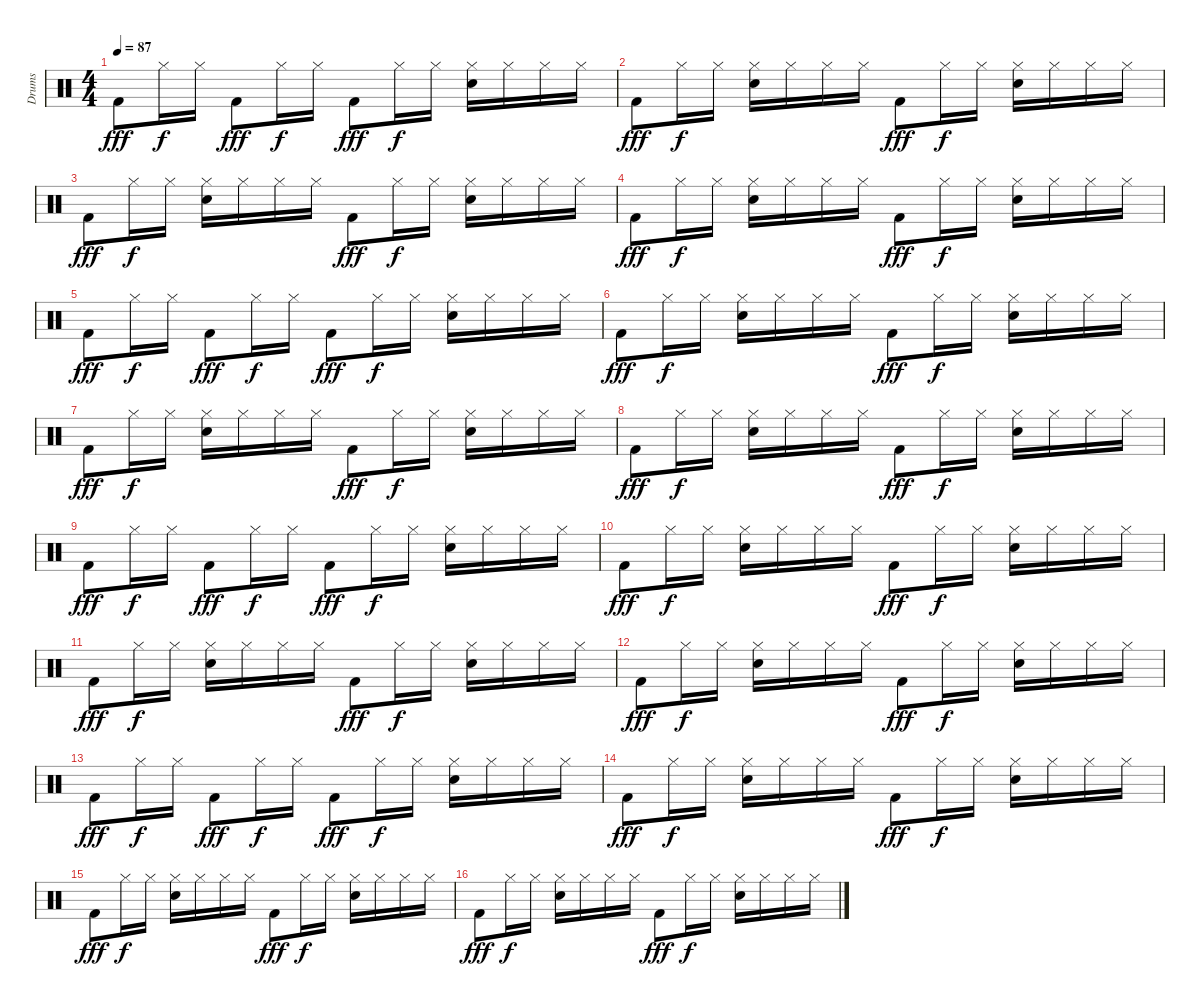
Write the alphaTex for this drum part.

\track ("Drums" "Drums") {instrument percussion}
\staff {score}
\articulation defaults
\ts (4 4)
\tempo 87
\clef neutral
\ks c "Kick (hit) 2".8{dy fff} "Hi-Hat (closed)".16{dy f} "Hi-Hat (closed)".16 "Kick (hit) 2".8{dy fff} "Hi-Hat (closed)".16{dy f} "Hi-Hat (closed)".16 "Kick (hit) 2".8{dy fff} "Hi-Hat (closed)".16{dy f} "Hi-Hat (closed)".16
("Hi-Hat (closed)" "Electric Snare (hit)").16 "Hi-Hat (closed)".16 "Hi-Hat (closed)".16 "Hi-Hat (closed)".16 |
"Kick (hit) 2".8{dy fff} "Hi-Hat (closed)".16{dy f} "Hi-Hat (closed)".16 ("Hi-Hat (closed)" "Electric Snare (hit)").16 "Hi-Hat (closed)".16 "Hi-Hat (closed)".16 "Hi-Hat (closed)".16 "Kick (hit) 2".8{dy fff} "Hi-Hat (closed)".16{dy f} "Hi-Hat (closed)".16 ("Hi-Hat (closed)" "Electric Snare (hit)").16 "Hi-Hat (closed)".16 "Hi-Hat (closed)".16 "Hi-Hat (closed)".16 |
"Kick (hit) 2".8{dy fff} "Hi-Hat (closed)".16{dy f} "Hi-Hat (closed)".16 ("Hi-Hat (closed)" "Electric Snare (hit)").16 "Hi-Hat (closed)".16 "Hi-Hat (closed)".16 "Hi-Hat (closed)".16 "Kick (hit) 2".8{dy fff} "Hi-Hat (closed)".16{dy f} "Hi-Hat (closed)".16 ("Hi-Hat (closed)" "Electric Snare (hit)").16 "Hi-Hat (closed)".16 "Hi-Hat (closed)".16 "Hi-Hat (closed)".16 |
"Kick (hit) 2".8{dy fff} "Hi-Hat (closed)".16{dy f} "Hi-Hat (closed)".16 ("Hi-Hat (closed)" "Electric Snare (hit)").16 "Hi-Hat (closed)".16 "Hi-Hat (closed)".16 "Hi-Hat (closed)".16 "Kick (hit) 2".8{dy fff} "Hi-Hat (closed)".16{dy f} "Hi-Hat (closed)".16 ("Hi-Hat (closed)" "Electric Snare (hit)").16 "Hi-Hat (closed)".16 "Hi-Hat (closed)".16 "Hi-Hat (closed)".16 |
"Kick (hit) 2".8{dy fff} "Hi-Hat (closed)".16{dy f} "Hi-Hat (closed)".16 "Kick (hit) 2".8{dy fff} "Hi-Hat (closed)".16{dy f} "Hi-Hat (closed)".16 "Kick (hit) 2".8{dy fff} "Hi-Hat (closed)".16{dy f} "Hi-Hat (closed)".16 ("Hi-Hat (closed)" "Electric Snare (hit)").16 "Hi-Hat (closed)".16 "Hi-Hat (closed)".16 "Hi-Hat (closed)".16 |
"Kick (hit) 2".8{dy fff} "Hi-Hat (closed)".16{dy f} "Hi-Hat (closed)".16 ("Hi-Hat (closed)" "Electric Snare (hit)").16 "Hi-Hat (closed)".16 "Hi-Hat (closed)".16 "Hi-Hat (closed)".16 "Kick (hit) 2".8{dy fff} "Hi-Hat (closed)".16{dy f} "Hi-Hat (closed)".16 ("Hi-Hat (closed)" "Electric Snare (hit)").16 "Hi-Hat (closed)".16 "Hi-Hat (closed)".16 "Hi-Hat (closed)".16 |
"Kick (hit) 2".8{dy fff} "Hi-Hat (closed)".16{dy f} "Hi-Hat (closed)".16 ("Hi-Hat (closed)" "Electric Snare (hit)").16 "Hi-Hat (closed)".16 "Hi-Hat (closed)".16 "Hi-Hat (closed)".16 "Kick (hit) 2".8{dy fff} "Hi-Hat (closed)".16{dy f} "Hi-Hat (closed)".16 ("Hi-Hat (closed)" "Electric Snare (hit)").16 "Hi-Hat (closed)".16 "Hi-Hat (closed)".16 "Hi-Hat (closed)".16 |
"Kick (hit) 2".8{dy fff} "Hi-Hat (closed)".16{dy f} "Hi-Hat (closed)".16 ("Hi-Hat (closed)" "Electric Snare (hit)").16 "Hi-Hat (closed)".16 "Hi-Hat (closed)".16 "Hi-Hat (closed)".16 "Kick (hit) 2".8{dy fff} "Hi-Hat (closed)".16{dy f} "Hi-Hat (closed)".16 ("Hi-Hat (closed)" "Electric Snare (hit)").16 "Hi-Hat (closed)".16 "Hi-Hat (closed)".16 "Hi-Hat (closed)".16 |
"Kick (hit) 2".8{dy fff} "Hi-Hat (closed)".16{dy f} "Hi-Hat (closed)".16 "Kick (hit) 2".8{dy fff} "Hi-Hat (closed)".16{dy f} "Hi-Hat (closed)".16 "Kick (hit) 2".8{dy fff} "Hi-Hat (closed)".16{dy f} "Hi-Hat (closed)".16 ("Hi-Hat (closed)" "Electric Snare (hit)").16 "Hi-Hat (closed)".16 "Hi-Hat (closed)".16 "Hi-Hat (closed)".16 |
"Kick (hit) 2".8{dy fff} "Hi-Hat (closed)".16{dy f} "Hi-Hat (closed)".16 ("Hi-Hat (closed)" "Electric Snare (hit)").16 "Hi-Hat (closed)".16 "Hi-Hat (closed)".16 "Hi-Hat (closed)".16 "Kick (hit) 2".8{dy fff} "Hi-Hat (closed)".16{dy f} "Hi-Hat (closed)".16 ("Hi-Hat (closed)" "Electric Snare (hit)").16 "Hi-Hat (closed)".16 "Hi-Hat (closed)".16 "Hi-Hat (closed)".16 |
"Kick (hit) 2".8{dy fff} "Hi-Hat (closed)".16{dy f} "Hi-Hat (closed)".16 ("Hi-Hat (closed)" "Electric Snare (hit)").16 "Hi-Hat (closed)".16 "Hi-Hat (closed)".16 "Hi-Hat (closed)".16 "Kick (hit) 2".8{dy fff} "Hi-Hat (closed)".16{dy f} "Hi-Hat (closed)".16 ("Hi-Hat (closed)" "Electric Snare (hit)").16 "Hi-Hat (closed)".16 "Hi-Hat (closed)".16 "Hi-Hat (closed)".16 |
"Kick (hit) 2".8{dy fff} "Hi-Hat (closed)".16{dy f} "Hi-Hat (closed)".16 ("Hi-Hat (closed)" "Electric Snare (hit)").16 "Hi-Hat (closed)".16 "Hi-Hat (closed)".16 "Hi-Hat (closed)".16 "Kick (hit) 2".8{dy fff} "Hi-Hat (closed)".16{dy f} "Hi-Hat (closed)".16 ("Hi-Hat (closed)" "Electric Snare (hit)").16 "Hi-Hat (closed)".16 "Hi-Hat (closed)".16 "Hi-Hat (closed)".16 |
"Kick (hit) 2".8{dy fff} "Hi-Hat (closed)".16{dy f} "Hi-Hat (closed)".16 "Kick (hit) 2".8{dy fff} "Hi-Hat (closed)".16{dy f} "Hi-Hat (closed)".16 "Kick (hit) 2".8{dy fff} "Hi-Hat (closed)".16{dy f} "Hi-Hat (closed)".16 ("Hi-Hat (closed)" "Electric Snare (hit)").16 "Hi-Hat (closed)".16 "Hi-Hat (closed)".16 "Hi-Hat (closed)".16 |
"Kick (hit) 2".8{dy fff} "Hi-Hat (closed)".16{dy f} "Hi-Hat (closed)".16 ("Hi-Hat (closed)" "Electric Snare (hit)").16 "Hi-Hat (closed)".16 "Hi-Hat (closed)".16 "Hi-Hat (closed)".16 "Kick (hit) 2".8{dy fff} "Hi-Hat (closed)".16{dy f} "Hi-Hat (closed)".16 ("Hi-Hat (closed)" "Electric Snare (hit)").16 "Hi-Hat (closed)".16 "Hi-Hat (closed)".16 "Hi-Hat (closed)".16 |
"Kick (hit) 2".8{dy fff} "Hi-Hat (closed)".16{dy f} "Hi-Hat (closed)".16 ("Hi-Hat (closed)" "Electric Snare (hit)").16 "Hi-Hat (closed)".16 "Hi-Hat (closed)".16 "Hi-Hat (closed)".16 "Kick (hit) 2".8{dy fff} "Hi-Hat (closed)".16{dy f} "Hi-Hat (closed)".16 ("Hi-Hat (closed)" "Electric Snare (hit)").16 "Hi-Hat (closed)".16 "Hi-Hat (closed)".16 "Hi-Hat (closed)".16 |
"Kick (hit) 2".8{dy fff} "Hi-Hat (closed)".16{dy f} "Hi-Hat (closed)".16 ("Hi-Hat (closed)" "Electric Snare (hit)").16 "Hi-Hat (closed)".16 "Hi-Hat (closed)".16 "Hi-Hat (closed)".16 "Kick (hit) 2".8{dy fff} "Hi-Hat (closed)".16{dy f} "Hi-Hat (closed)".16 ("Hi-Hat (closed)" "Electric Snare (hit)").16 "Hi-Hat (closed)".16 "Hi-Hat (closed)".16 "Hi-Hat (closed)".16
